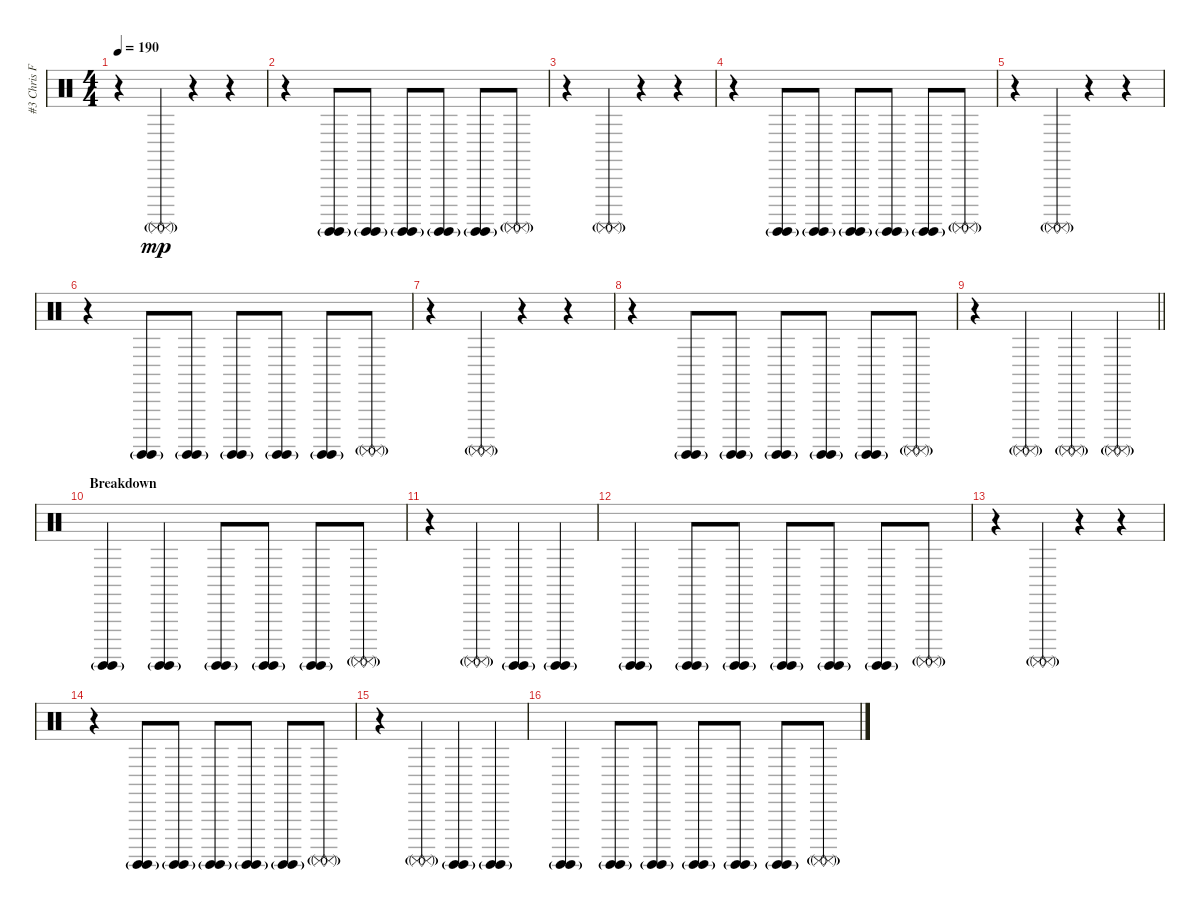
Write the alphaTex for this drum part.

\track ("#3 Chris Fehn" "#3 Chris F") {instrument percussion}
\staff {score}
\articulation defaults
\ts (4 4)
\tempo 190
\clef neutral
\ks c
r.4{dy mp} ("Surdo (mute)"{g} "Surdo (mute)"{g}).4 r.4 r.4 |
r.4 ("Surdo (hit)"{g} "Surdo (hit)"{g}).8 ("Surdo (hit)"{g} "Surdo (hit)"{g}).8 ("Surdo (hit)"{g} "Surdo (hit)"{g}).8 ("Surdo (hit)"{g} "Surdo (hit)"{g}).8 ("Surdo (hit)"{g} "Surdo (hit)"{g}).8 ("Surdo (mute)"{g} "Surdo (mute)"{g}).8 |
r.4 ("Surdo (mute)"{g} "Surdo (mute)"{g}).4 r.4 r.4 |
r.4 ("Surdo (hit)"{g} "Surdo (hit)"{g}).8 ("Surdo (hit)"{g} "Surdo (hit)"{g}).8 ("Surdo (hit)"{g} "Surdo (hit)"{g}).8 ("Surdo (hit)"{g} "Surdo (hit)"{g}).8 ("Surdo (hit)"{g} "Surdo (hit)"{g}).8 ("Surdo (mute)"{g} "Surdo (mute)"{g}).8 |
r.4 ("Surdo (mute)"{g} "Surdo (mute)"{g}).4 r.4 r.4 |
r.4 ("Surdo (hit)"{g} "Surdo (hit)"{g}).8 ("Surdo (hit)"{g} "Surdo (hit)"{g}).8 ("Surdo (hit)"{g} "Surdo (hit)"{g}).8 ("Surdo (hit)"{g} "Surdo (hit)"{g}).8 ("Surdo (hit)"{g} "Surdo (hit)"{g}).8 ("Surdo (mute)"{g} "Surdo (mute)"{g}).8 |
r.4 ("Surdo (mute)"{g} "Surdo (mute)"{g}).4 r.4 r.4 |
r.4 ("Surdo (hit)"{g} "Surdo (hit)"{g}).8 ("Surdo (hit)"{g} "Surdo (hit)"{g}).8 ("Surdo (hit)"{g} "Surdo (hit)"{g}).8 ("Surdo (hit)"{g} "Surdo (hit)"{g}).8 ("Surdo (hit)"{g} "Surdo (hit)"{g}).8 ("Surdo (mute)"{g} "Surdo (mute)"{g}).8 |
\barLineRight lightlight
r.4 ("Surdo (mute)"{g} "Surdo (mute)"{g}).4 ("Surdo (mute)"{g} "Surdo (mute)"{g}).4 ("Surdo (mute)"{g} "Surdo (mute)"{g}).4 |
\section ("" "Breakdown")
("Surdo (hit)"{g} "Surdo (hit)"{g}).4 ("Surdo (hit)"{g} "Surdo (hit)"{g}).4 ("Surdo (hit)"{g} "Surdo (hit)"{g}).8 ("Surdo (hit)"{g} "Surdo (hit)"{g}).8 ("Surdo (hit)"{g} "Surdo (hit)"{g}).8 ("Surdo (mute)"{g} "Surdo (mute)"{g}).8 |
r.4 ("Surdo (mute)"{g} "Surdo (mute)"{g}).4 ("Surdo (hit)"{g} "Surdo (hit)"{g}).4 ("Surdo (hit)"{g} "Surdo (hit)"{g}).4 |
("Surdo (hit)"{g} "Surdo (hit)"{g}).4 ("Surdo (hit)"{g} "Surdo (hit)"{g}).8 ("Surdo (hit)"{g} "Surdo (hit)"{g}).8 ("Surdo (hit)"{g} "Surdo (hit)"{g}).8 ("Surdo (hit)"{g} "Surdo (hit)"{g}).8 ("Surdo (hit)"{g} "Surdo (hit)"{g}).8 ("Surdo (mute)"{g} "Surdo (mute)"{g}).8 |
r.4 ("Surdo (mute)"{g} "Surdo (mute)"{g}).4 r.4 r.4 |
r.4 ("Surdo (hit)"{g} "Surdo (hit)"{g}).8 ("Surdo (hit)"{g} "Surdo (hit)"{g}).8 ("Surdo (hit)"{g} "Surdo (hit)"{g}).8 ("Surdo (hit)"{g} "Surdo (hit)"{g}).8 ("Surdo (hit)"{g} "Surdo (hit)"{g}).8 ("Surdo (mute)"{g} "Surdo (mute)"{g}).8 |
r.4 ("Surdo (mute)"{g} "Surdo (mute)"{g}).4 ("Surdo (hit)"{g} "Surdo (hit)"{g}).4 ("Surdo (hit)"{g} "Surdo (hit)"{g}).4 |
("Surdo (hit)"{g} "Surdo (hit)"{g}).4 ("Surdo (hit)"{g} "Surdo (hit)"{g}).8 ("Surdo (hit)"{g} "Surdo (hit)"{g}).8 ("Surdo (hit)"{g} "Surdo (hit)"{g}).8 ("Surdo (hit)"{g} "Surdo (hit)"{g}).8 ("Surdo (hit)"{g} "Surdo (hit)"{g}).8 ("Surdo (mute)"{g} "Surdo (mute)"{g}).8
